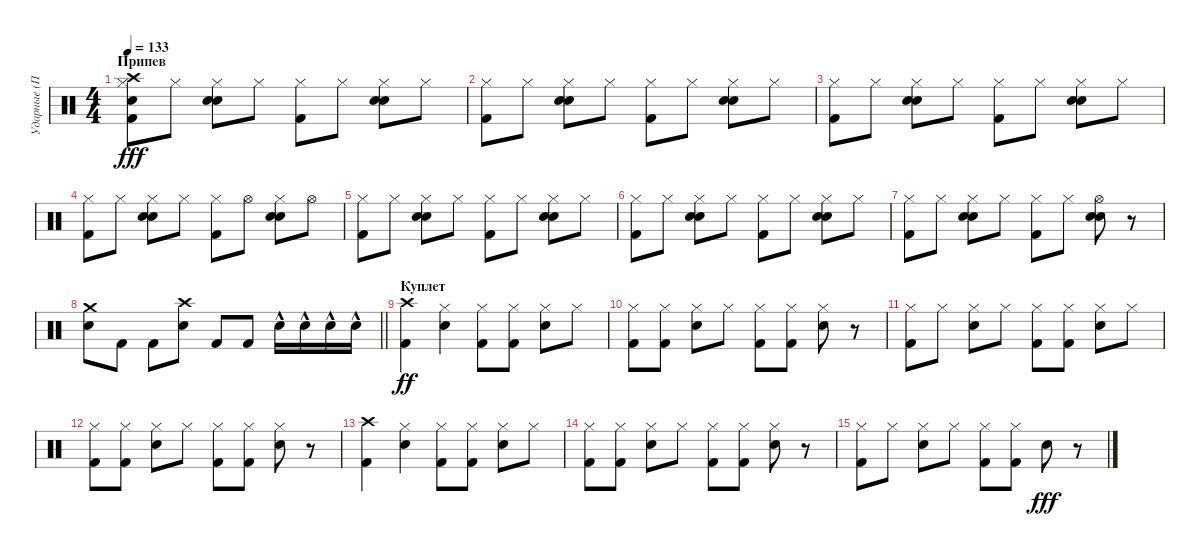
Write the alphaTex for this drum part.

\track ("Ударные (Пацан в Дредах)" "Ударные (П") {instrument percussion}
\staff {score}
\articulation defaults
\ts (4 4)
\section ("" "Припев")
\tempo 133
\clef neutral
\ks c
("Crash high (hit)" "Hi-Hat (closed)" "Snare (hit)" "Kick (hit) 2").8{dy fff} "Hi-Hat (closed)".8 ("Hi-Hat (closed)" "Electric Snare (hit)" "Hand Clap (hit)").8 "Hi-Hat (closed)".8 ("Hi-Hat (closed)" "Kick (hit) 2").8 "Hi-Hat (closed)".8 ("Hi-Hat (closed)" "Electric Snare (hit)" "Hand Clap (hit)").8 "Hi-Hat (closed)".8 |
("Hi-Hat (closed)" "Kick (hit) 2").8 "Hi-Hat (closed)".8 ("Hi-Hat (closed)" "Electric Snare (hit)" "Hand Clap (hit)").8 "Hi-Hat (closed)".8 ("Hi-Hat (closed)" "Kick (hit) 2").8 "Hi-Hat (closed)".8 ("Hi-Hat (closed)" "Electric Snare (hit)" "Hand Clap (hit)").8 "Hi-Hat (closed)".8 |
("Hi-Hat (closed)" "Kick (hit) 2").8 "Hi-Hat (closed)".8 ("Hi-Hat (closed)" "Electric Snare (hit)" "Hand Clap (hit)").8 "Hi-Hat (closed)".8 ("Hi-Hat (closed)" "Kick (hit) 2").8 "Hi-Hat (closed)".8 ("Hi-Hat (closed)" "Electric Snare (hit)" "Hand Clap (hit)").8 "Hi-Hat (closed)".8 |
("Hi-Hat (closed)" "Kick (hit) 2").8 "Hi-Hat (closed)".8 ("Hi-Hat (closed)" "Electric Snare (hit)" "Hand Clap (hit)").8 "Hi-Hat (closed)".8 ("Hi-Hat (closed)" "Kick (hit) 2").8 "Hi-Hat (open)".8 ("Hi-Hat (closed)" "Electric Snare (hit)" "Hand Clap (hit)").8 "Hi-Hat (open)".8 |
("Hi-Hat (closed)" "Kick (hit) 2").8 "Hi-Hat (closed)".8 ("Hi-Hat (closed)" "Electric Snare (hit)" "Hand Clap (hit)").8 "Hi-Hat (closed)".8 ("Hi-Hat (closed)" "Kick (hit) 2").8 "Hi-Hat (closed)".8 ("Hi-Hat (closed)" "Electric Snare (hit)" "Hand Clap (hit)").8 "Hi-Hat (closed)".8 |
("Hi-Hat (closed)" "Kick (hit) 2").8 "Hi-Hat (closed)".8 ("Hi-Hat (closed)" "Electric Snare (hit)" "Hand Clap (hit)").8 "Hi-Hat (closed)".8 ("Hi-Hat (closed)" "Kick (hit) 2").8 "Hi-Hat (closed)".8 ("Hi-Hat (closed)" "Electric Snare (hit)" "Hand Clap (hit)").8 "Hi-Hat (closed)".8 |
("Hi-Hat (closed)" "Kick (hit) 2").8 "Hi-Hat (closed)".8 ("Hi-Hat (closed)" "Electric Snare (hit)" "Hand Clap (hit)").8 "Hi-Hat (closed)".8 ("Hi-Hat (closed)" "Kick (hit) 2").8 "Hi-Hat (closed)".8 ("Hi-Hat (open)" "Electric Snare (hit)" "Hand Clap (hit)").8 r.8 |
\barLineRight lightlight
("Crash medium (hit)" "Electric Snare (hit)").8 "Kick (hit) 2".8 "Kick (hit) 2".8 ("Crash high (hit)" "Electric Snare (hit)").8 "Kick (hit) 2".8 "Kick (hit) 2".8 "Electric Snare (hit)"{hac}.16 "Electric Snare (hit)"{hac}.16 "Electric Snare (hit)"{hac}.16 "Electric Snare (hit)"{hac}.16 |
\section ("" "Куплет")
("Crash high (hit)" "Kick (hit) 2").4{dy ff} ("Hi-Hat (closed)" "Electric Snare (hit)").4 ("Hi-Hat (closed)" "Kick (hit) 2").8 ("Hi-Hat (closed)" "Kick (hit) 2").8 ("Hi-Hat (closed)" "Electric Snare (hit)").8 "Hi-Hat (closed)".8 |
("Hi-Hat (closed)" "Kick (hit) 2").8 ("Hi-Hat (closed)" "Kick (hit) 2").8 ("Hi-Hat (closed)" "Electric Snare (hit)").8 "Hi-Hat (closed)".8 ("Hi-Hat (closed)" "Kick (hit) 2").8 ("Hi-Hat (closed)" "Kick (hit) 2").8 ("Hi-Hat (closed)" "Electric Snare (hit)").8 r.8 |
("Hi-Hat (closed)" "Kick (hit) 2").8 "Hi-Hat (closed)".8 ("Hi-Hat (closed)" "Electric Snare (hit)").8 "Hi-Hat (closed)".8 ("Hi-Hat (closed)" "Kick (hit) 2").8 ("Hi-Hat (closed)" "Kick (hit) 2").8 ("Hi-Hat (closed)" "Electric Snare (hit)").8 "Hi-Hat (closed)".8 |
("Hi-Hat (closed)" "Kick (hit) 2").8 ("Hi-Hat (closed)" "Kick (hit) 2").8 ("Hi-Hat (closed)" "Electric Snare (hit)").8 "Hi-Hat (closed)".8 ("Hi-Hat (closed)" "Kick (hit) 2").8 ("Hi-Hat (closed)" "Kick (hit) 2").8 ("Hi-Hat (closed)" "Electric Snare (hit)").8 r.8 |
("Crash high (hit)" "Kick (hit) 2").4 ("Hi-Hat (closed)" "Electric Snare (hit)").4 ("Hi-Hat (closed)" "Kick (hit) 2").8 ("Hi-Hat (closed)" "Kick (hit) 2").8 ("Hi-Hat (closed)" "Electric Snare (hit)").8 "Hi-Hat (closed)".8 |
("Hi-Hat (closed)" "Kick (hit) 2").8 ("Hi-Hat (closed)" "Kick (hit) 2").8 ("Hi-Hat (closed)" "Electric Snare (hit)").8 "Hi-Hat (closed)".8 ("Hi-Hat (closed)" "Kick (hit) 2").8 ("Hi-Hat (closed)" "Kick (hit) 2").8 ("Hi-Hat (closed)" "Electric Snare (hit)").8 r.8 |
("Hi-Hat (closed)" "Kick (hit) 2").8 "Hi-Hat (closed)".8 ("Hi-Hat (closed)" "Electric Snare (hit)").8 "Hi-Hat (closed)".8 ("Hi-Hat (closed)" "Kick (hit) 2").8 ("Hi-Hat (closed)" "Kick (hit) 2").8 "Electric Snare (hit)".8{dy fff} r.8
